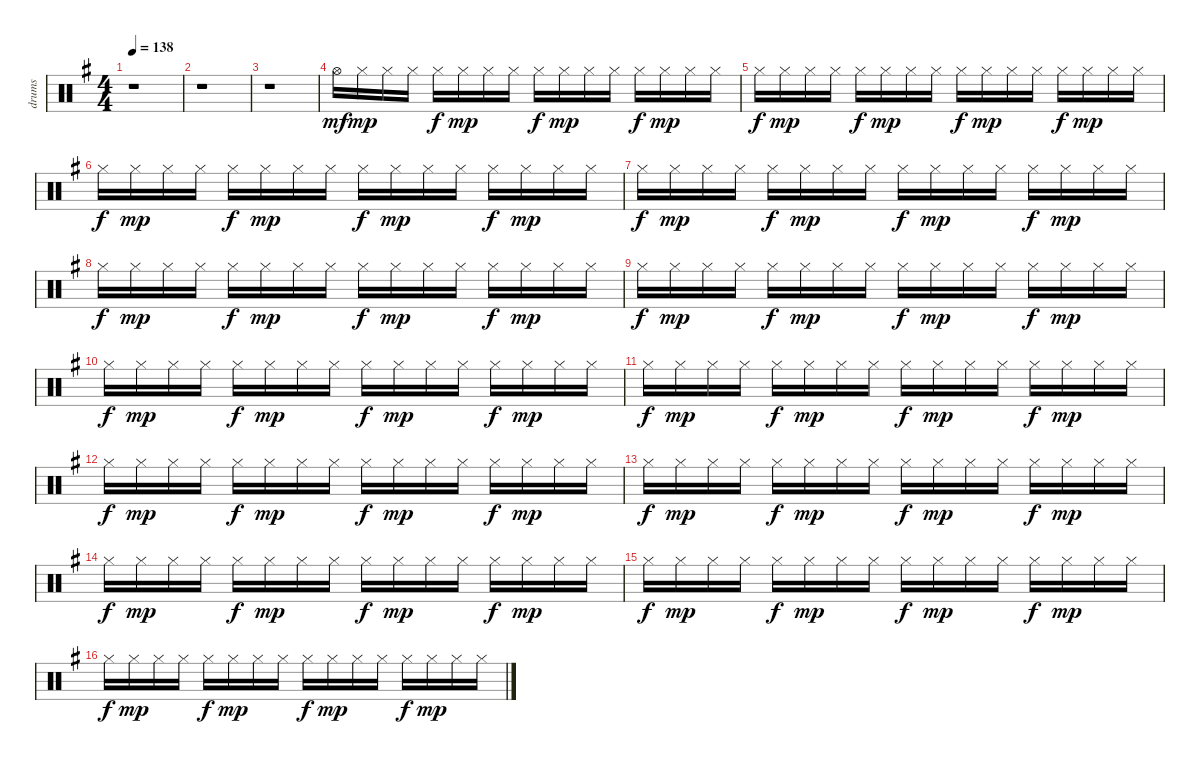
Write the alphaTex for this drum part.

\track ("drums" "drums") {instrument percussion}
\staff {score}
\articulation defaults
\ts (4 4)
\tempo 138
\clef neutral
\ks eminor
r.1{dy f} |
r.1 |
r.1 |
"Hi-Hat (open)".16{dy mf} "Hi-Hat (closed)".16{dy mp} "Hi-Hat (closed)".16 "Hi-Hat (closed)".16 "Hi-Hat (closed)".16{dy f} "Hi-Hat (closed)".16{dy mp} "Hi-Hat (closed)".16 "Hi-Hat (closed)".16 "Hi-Hat (closed)".16{dy f} "Hi-Hat (closed)".16{dy mp} "Hi-Hat (closed)".16 "Hi-Hat (closed)".16 "Hi-Hat (closed)".16{dy f} "Hi-Hat (closed)".16{dy mp} "Hi-Hat (closed)".16 "Hi-Hat (closed)".16 |
"Hi-Hat (closed)".16{dy f} "Hi-Hat (closed)".16{dy mp} "Hi-Hat (closed)".16 "Hi-Hat (closed)".16 "Hi-Hat (closed)".16{dy f} "Hi-Hat (closed)".16{dy mp} "Hi-Hat (closed)".16 "Hi-Hat (closed)".16 "Hi-Hat (closed)".16{dy f} "Hi-Hat (closed)".16{dy mp} "Hi-Hat (closed)".16 "Hi-Hat (closed)".16 "Hi-Hat (closed)".16{dy f} "Hi-Hat (closed)".16{dy mp} "Hi-Hat (closed)".16 "Hi-Hat (closed)".16 |
"Hi-Hat (closed)".16{dy f} "Hi-Hat (closed)".16{dy mp} "Hi-Hat (closed)".16 "Hi-Hat (closed)".16 "Hi-Hat (closed)".16{dy f} "Hi-Hat (closed)".16{dy mp} "Hi-Hat (closed)".16 "Hi-Hat (closed)".16 "Hi-Hat (closed)".16{dy f} "Hi-Hat (closed)".16{dy mp} "Hi-Hat (closed)".16 "Hi-Hat (closed)".16 "Hi-Hat (closed)".16{dy f} "Hi-Hat (closed)".16{dy mp} "Hi-Hat (closed)".16 "Hi-Hat (closed)".16 |
"Hi-Hat (closed)".16{dy f} "Hi-Hat (closed)".16{dy mp} "Hi-Hat (closed)".16 "Hi-Hat (closed)".16 "Hi-Hat (closed)".16{dy f} "Hi-Hat (closed)".16{dy mp} "Hi-Hat (closed)".16 "Hi-Hat (closed)".16 "Hi-Hat (closed)".16{dy f} "Hi-Hat (closed)".16{dy mp} "Hi-Hat (closed)".16 "Hi-Hat (closed)".16 "Hi-Hat (closed)".16{dy f} "Hi-Hat (closed)".16{dy mp} "Hi-Hat (closed)".16 "Hi-Hat (closed)".16 |
"Hi-Hat (closed)".16{dy f} "Hi-Hat (closed)".16{dy mp} "Hi-Hat (closed)".16 "Hi-Hat (closed)".16 "Hi-Hat (closed)".16{dy f} "Hi-Hat (closed)".16{dy mp} "Hi-Hat (closed)".16 "Hi-Hat (closed)".16 "Hi-Hat (closed)".16{dy f} "Hi-Hat (closed)".16{dy mp} "Hi-Hat (closed)".16 "Hi-Hat (closed)".16 "Hi-Hat (closed)".16{dy f} "Hi-Hat (closed)".16{dy mp} "Hi-Hat (closed)".16 "Hi-Hat (closed)".16 |
"Hi-Hat (closed)".16{dy f} "Hi-Hat (closed)".16{dy mp} "Hi-Hat (closed)".16 "Hi-Hat (closed)".16 "Hi-Hat (closed)".16{dy f} "Hi-Hat (closed)".16{dy mp} "Hi-Hat (closed)".16 "Hi-Hat (closed)".16 "Hi-Hat (closed)".16{dy f} "Hi-Hat (closed)".16{dy mp} "Hi-Hat (closed)".16 "Hi-Hat (closed)".16 "Hi-Hat (closed)".16{dy f} "Hi-Hat (closed)".16{dy mp} "Hi-Hat (closed)".16 "Hi-Hat (closed)".16 |
"Hi-Hat (closed)".16{dy f} "Hi-Hat (closed)".16{dy mp} "Hi-Hat (closed)".16 "Hi-Hat (closed)".16 "Hi-Hat (closed)".16{dy f} "Hi-Hat (closed)".16{dy mp} "Hi-Hat (closed)".16 "Hi-Hat (closed)".16 "Hi-Hat (closed)".16{dy f} "Hi-Hat (closed)".16{dy mp} "Hi-Hat (closed)".16 "Hi-Hat (closed)".16 "Hi-Hat (closed)".16{dy f} "Hi-Hat (closed)".16{dy mp} "Hi-Hat (closed)".16 "Hi-Hat (closed)".16 |
"Hi-Hat (closed)".16{dy f} "Hi-Hat (closed)".16{dy mp} "Hi-Hat (closed)".16 "Hi-Hat (closed)".16 "Hi-Hat (closed)".16{dy f} "Hi-Hat (closed)".16{dy mp} "Hi-Hat (closed)".16 "Hi-Hat (closed)".16 "Hi-Hat (closed)".16{dy f} "Hi-Hat (closed)".16{dy mp} "Hi-Hat (closed)".16 "Hi-Hat (closed)".16 "Hi-Hat (closed)".16{dy f} "Hi-Hat (closed)".16{dy mp} "Hi-Hat (closed)".16 "Hi-Hat (closed)".16 |
"Hi-Hat (closed)".16{dy f} "Hi-Hat (closed)".16{dy mp} "Hi-Hat (closed)".16 "Hi-Hat (closed)".16 "Hi-Hat (closed)".16{dy f} "Hi-Hat (closed)".16{dy mp} "Hi-Hat (closed)".16 "Hi-Hat (closed)".16 "Hi-Hat (closed)".16{dy f} "Hi-Hat (closed)".16{dy mp} "Hi-Hat (closed)".16 "Hi-Hat (closed)".16 "Hi-Hat (closed)".16{dy f} "Hi-Hat (closed)".16{dy mp} "Hi-Hat (closed)".16 "Hi-Hat (closed)".16 |
"Hi-Hat (closed)".16{dy f} "Hi-Hat (closed)".16{dy mp} "Hi-Hat (closed)".16 "Hi-Hat (closed)".16 "Hi-Hat (closed)".16{dy f} "Hi-Hat (closed)".16{dy mp} "Hi-Hat (closed)".16 "Hi-Hat (closed)".16 "Hi-Hat (closed)".16{dy f} "Hi-Hat (closed)".16{dy mp} "Hi-Hat (closed)".16 "Hi-Hat (closed)".16 "Hi-Hat (closed)".16{dy f} "Hi-Hat (closed)".16{dy mp} "Hi-Hat (closed)".16 "Hi-Hat (closed)".16 |
"Hi-Hat (closed)".16{dy f} "Hi-Hat (closed)".16{dy mp} "Hi-Hat (closed)".16 "Hi-Hat (closed)".16 "Hi-Hat (closed)".16{dy f} "Hi-Hat (closed)".16{dy mp} "Hi-Hat (closed)".16 "Hi-Hat (closed)".16 "Hi-Hat (closed)".16{dy f} "Hi-Hat (closed)".16{dy mp} "Hi-Hat (closed)".16 "Hi-Hat (closed)".16 "Hi-Hat (closed)".16{dy f} "Hi-Hat (closed)".16{dy mp} "Hi-Hat (closed)".16 "Hi-Hat (closed)".16 |
"Hi-Hat (closed)".16{dy f} "Hi-Hat (closed)".16{dy mp} "Hi-Hat (closed)".16 "Hi-Hat (closed)".16 "Hi-Hat (closed)".16{dy f} "Hi-Hat (closed)".16{dy mp} "Hi-Hat (closed)".16 "Hi-Hat (closed)".16 "Hi-Hat (closed)".16{dy f} "Hi-Hat (closed)".16{dy mp} "Hi-Hat (closed)".16 "Hi-Hat (closed)".16 "Hi-Hat (closed)".16{dy f} "Hi-Hat (closed)".16{dy mp} "Hi-Hat (closed)".16 "Hi-Hat (closed)".16 |
"Hi-Hat (closed)".16{dy f} "Hi-Hat (closed)".16{dy mp} "Hi-Hat (closed)".16 "Hi-Hat (closed)".16 "Hi-Hat (closed)".16{dy f} "Hi-Hat (closed)".16{dy mp} "Hi-Hat (closed)".16 "Hi-Hat (closed)".16 "Hi-Hat (closed)".16{dy f} "Hi-Hat (closed)".16{dy mp} "Hi-Hat (closed)".16 "Hi-Hat (closed)".16 "Hi-Hat (closed)".16{dy f} "Hi-Hat (closed)".16{dy mp} "Hi-Hat (closed)".16 "Hi-Hat (closed)".16
